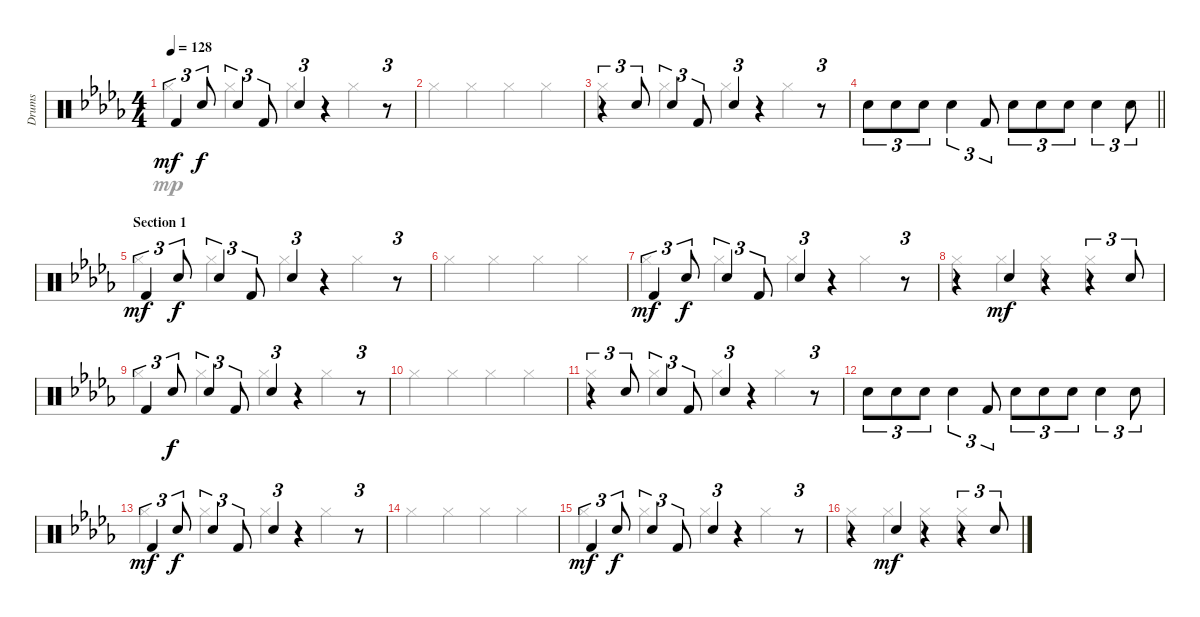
\track ("Drums" "Drums") {instrument percussion}
\staff {score}
\articulation defaults
\voice
\ts (4 4)
\tempo 128
\clef neutral
\ks db "Kick (hit) 2".4{tu (3 2) dy mf} "Snare (hit) 2".8{tu (3 2) dy f} "Snare (hit) 2".4{tu (3 2)} "Kick (hit) 2".8{tu (3 2)} "Snare (hit) 2".4{tu (3 2)}
r.4 r.8{tu (3 2)} |
|
r.4{tu (3 2)} "Snare (hit) 2".8{tu (3 2)} "Snare (hit) 2".4{tu (3 2)} "Kick (hit) 2".8{tu (3 2)} "Snare (hit) 2".4{tu (3 2)} r.4 r.8{tu (3 2)} |
\barLineRight lightlight "Snare (hit) 2".8{tu (3 2)} "Snare (hit) 2".8{tu (3 2)} "Snare (hit) 2".8{tu (3 2)} "Snare (hit) 2".4{tu (3 2)} "Kick (hit) 2".8{tu (3 2)} "Snare (hit) 2".8{tu (3 2)} "Snare (hit) 2".8{tu (3 2)} "Snare (hit) 2".8{tu (3 2)} "Snare (hit) 2".4{tu (3 2)} "Snare (hit) 2".8{tu (3 2)}
|
\section ("" "Section 1")
"Kick (hit) 2".4{tu (3 2) dy mf} "Snare (hit) 2".8{tu (3 2) dy f} "Snare (hit) 2".4{tu (3 2)} "Kick (hit) 2".8{tu (3 2)} "Snare (hit) 2".4{tu (3 2)} r.4 r.8{tu (3 2)} |
|
"Kick (hit) 2".4{tu (3 2) dy mf} "Snare (hit) 2".8{tu (3 2) dy f} "Snare (hit) 2".4{tu (3 2)} "Kick (hit) 2".8{tu (3 2)} "Snare (hit) 2".4{tu (3 2)} r.4 r.8{tu (3 2)} |
r.4 "Snare (hit) 2".4{dy mf} r.4 r.4{tu (3 2)} "Snare (hit) 2".8{tu (3 2)} |
"Kick (hit) 2".4{tu (3 2)} "Snare (hit) 2".8{tu (3 2) dy f} "Snare (hit) 2".4{tu (3 2)} "Kick (hit) 2".8{tu (3 2)} "Snare (hit) 2".4{tu (3 2)} r.4 r.8{tu (3 2)} |
|
r.4{tu (3 2)} "Snare (hit) 2".8{tu (3 2)} "Snare (hit) 2".4{tu (3 2)} "Kick (hit) 2".8{tu (3 2)} "Snare (hit) 2".4{tu (3 2)} r.4 r.8{tu (3 2)} |
"Snare (hit) 2".8{tu (3 2)} "Snare (hit) 2".8{tu (3 2)} "Snare (hit) 2".8{tu (3 2)} "Snare (hit) 2".4{tu (3 2)} "Kick (hit) 2".8{tu (3 2)} "Snare (hit) 2".8{tu (3 2)} "Snare (hit) 2".8{tu (3 2)} "Snare (hit) 2".8{tu (3 2)} "Snare (hit) 2".4{tu (3 2)} "Snare (hit) 2".8{tu (3 2)} |
"Kick (hit) 2".4{tu (3 2) dy mf} "Snare (hit) 2".8{tu (3 2) dy f} "Snare (hit) 2".4{tu (3 2)} "Kick (hit) 2".8{tu (3 2)} "Snare (hit) 2".4{tu (3 2)} r.4 r.8{tu (3 2)} |
|
"Kick (hit) 2".4{tu (3 2) dy mf} "Snare (hit) 2".8{tu (3 2) dy f} "Snare (hit) 2".4{tu (3 2)} "Kick (hit) 2".8{tu (3 2)} "Snare (hit) 2".4{tu (3 2)} r.4 r.8{tu (3 2)} |
r.4 "Snare (hit) 2".4{dy mf} r.4 r.4{tu (3 2)} "Snare (hit) 2".8{tu (3 2)}
\voice
\clef neutral
\ottava regular
\simile none
\ks db "Hi-Hat (closed)".4{dy mp} "Hi-Hat (closed)".4 "Hi-Hat (closed)".4 "Hi-Hat (closed)".4
|
"Hi-Hat (closed)".4 "Hi-Hat (closed)".4 "Hi-Hat (closed)".4 "Hi-Hat (closed)".4 |
"Hi-Hat (closed)".4 "Hi-Hat (closed)".4 "Hi-Hat (closed)".4 "Hi-Hat (closed)".4 |
\barLineRight lightlight
|
"Hi-Hat (closed)".4 "Hi-Hat (closed)".4 "Hi-Hat (closed)".4 "Hi-Hat (closed)".4 |
"Hi-Hat (closed)".4 "Hi-Hat (closed)".4 "Hi-Hat (closed)".4 "Hi-Hat (closed)".4 |
"Hi-Hat (closed)".4 "Hi-Hat (closed)".4 "Hi-Hat (closed)".4 "Hi-Hat (closed)".4 |
"Hi-Hat (closed)".4 "Hi-Hat (closed)".4 "Hi-Hat (closed)".4 "Hi-Hat (closed)".4 |
"Hi-Hat (closed)".4 "Hi-Hat (closed)".4 "Hi-Hat (closed)".4 "Hi-Hat (closed)".4 |
"Hi-Hat (closed)".4 "Hi-Hat (closed)".4 "Hi-Hat (closed)".4 "Hi-Hat (closed)".4 |
"Hi-Hat (closed)".4 "Hi-Hat (closed)".4 "Hi-Hat (closed)".4 "Hi-Hat (closed)".4 |
|
"Hi-Hat (closed)".4 "Hi-Hat (closed)".4 "Hi-Hat (closed)".4 "Hi-Hat (closed)".4 |
"Hi-Hat (closed)".4 "Hi-Hat (closed)".4 "Hi-Hat (closed)".4 "Hi-Hat (closed)".4 |
"Hi-Hat (closed)".4 "Hi-Hat (closed)".4 "Hi-Hat (closed)".4 "Hi-Hat (closed)".4 |
"Hi-Hat (closed)".4 "Hi-Hat (closed)".4 "Hi-Hat (closed)".4 "Hi-Hat (closed)".4
